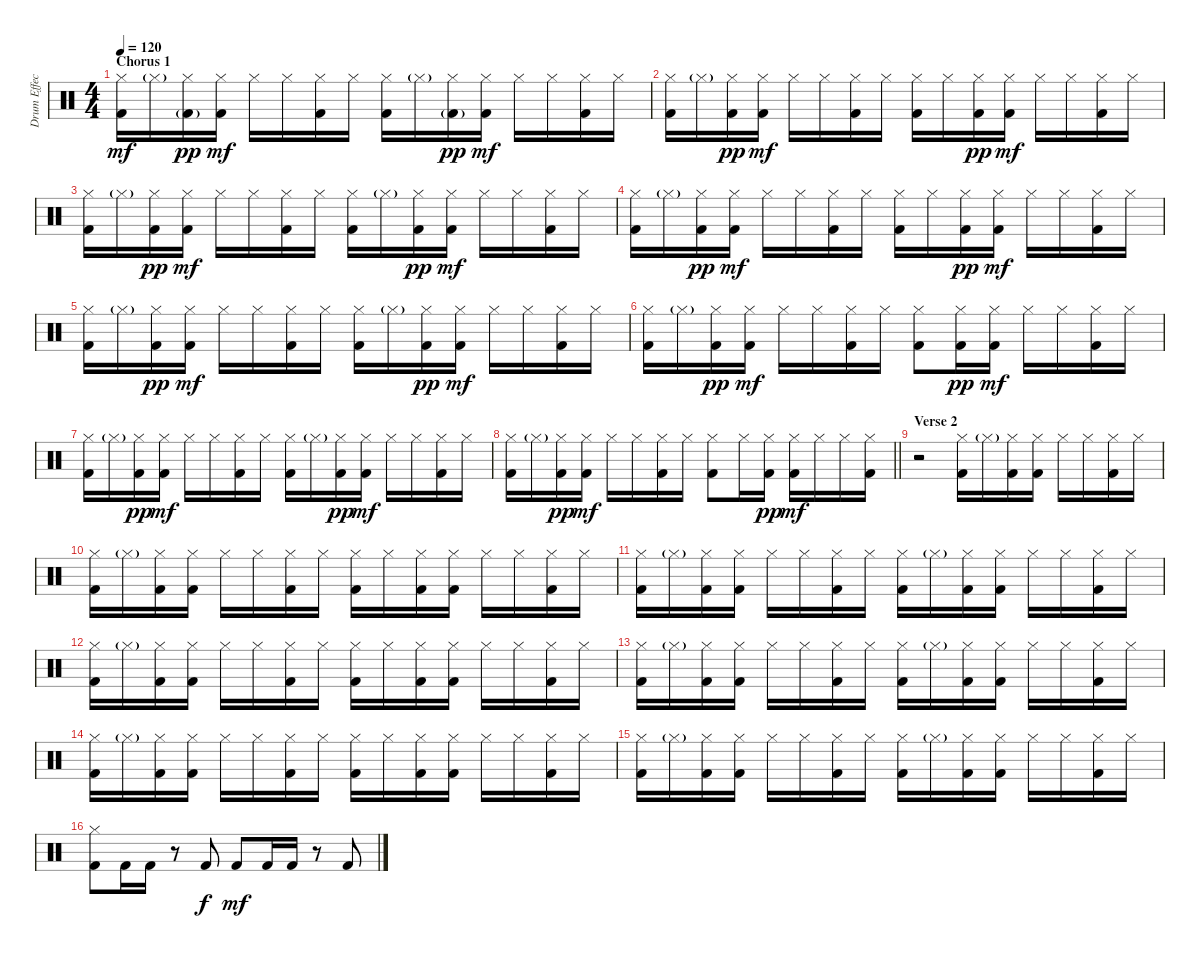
\track ("Drum Effects" "Drum Effec") {instrument percussion}
\staff {score}
\articulation defaults
\ts (4 4)
\section ("" "Chorus 1")
\tempo 120
\clef neutral
\ks c
("Hi-Hat (closed)" "Kick (hit) 2").16{dy mf} "Hi-Hat (closed)"{g}.16 ("Hi-Hat (closed)" "Kick (hit) 2"{g}).16{dy pp} ("Hi-Hat (closed)" "Kick (hit) 2").16{dy mf} "Hi-Hat (closed)".16 "Hi-Hat (closed)".16 ("Hi-Hat (closed)" "Kick (hit) 2").16 "Hi-Hat (closed)".16 ("Hi-Hat (closed)" "Kick (hit) 2").16 "Hi-Hat (closed)"{g}.16 ("Hi-Hat (closed)" "Kick (hit) 2"{g}).16{dy pp} ("Hi-Hat (closed)" "Kick (hit) 2").16{dy mf} "Hi-Hat (closed)".16 "Hi-Hat (closed)".16 ("Hi-Hat (closed)" "Kick (hit) 2").16 "Hi-Hat (closed)".16 |
("Hi-Hat (closed)" "Kick (hit) 2").16 "Hi-Hat (closed)"{g}.16 ("Hi-Hat (closed)" "Kick (hit) 2").16{dy pp} ("Hi-Hat (closed)" "Kick (hit) 2").16{dy mf} "Hi-Hat (closed)".16 "Hi-Hat (closed)".16 ("Hi-Hat (closed)" "Kick (hit) 2").16 "Hi-Hat (closed)".16 ("Hi-Hat (closed)" "Kick (hit) 2").16 "Hi-Hat (closed)".16 ("Hi-Hat (closed)" "Kick (hit) 2").16{dy pp} ("Hi-Hat (closed)" "Kick (hit) 2").16{dy mf} "Hi-Hat (closed)".16 "Hi-Hat (closed)".16 ("Hi-Hat (closed)" "Kick (hit) 2").16 "Hi-Hat (closed)".16 |
("Hi-Hat (closed)" "Kick (hit) 2").16 "Hi-Hat (closed)"{g}.16 ("Hi-Hat (closed)" "Kick (hit) 2").16{dy pp} ("Hi-Hat (closed)" "Kick (hit) 2").16{dy mf} "Hi-Hat (closed)".16 "Hi-Hat (closed)".16 ("Hi-Hat (closed)" "Kick (hit) 2").16 "Hi-Hat (closed)".16 ("Hi-Hat (closed)" "Kick (hit) 2").16 "Hi-Hat (closed)"{g}.16 ("Hi-Hat (closed)" "Kick (hit) 2").16{dy pp} ("Hi-Hat (closed)" "Kick (hit) 2").16{dy mf} "Hi-Hat (closed)".16 "Hi-Hat (closed)".16 ("Hi-Hat (closed)" "Kick (hit) 2").16 "Hi-Hat (closed)".16 |
("Hi-Hat (closed)" "Kick (hit) 2").16 "Hi-Hat (closed)"{g}.16 ("Hi-Hat (closed)" "Kick (hit) 2").16{dy pp} ("Hi-Hat (closed)" "Kick (hit) 2").16{dy mf} "Hi-Hat (closed)".16 "Hi-Hat (closed)".16 ("Hi-Hat (closed)" "Kick (hit) 2").16 "Hi-Hat (closed)".16 ("Hi-Hat (closed)" "Kick (hit) 2").16 "Hi-Hat (closed)".16 ("Hi-Hat (closed)" "Kick (hit) 2").16{dy pp} ("Hi-Hat (closed)" "Kick (hit) 2").16{dy mf} "Hi-Hat (closed)".16 "Hi-Hat (closed)".16 ("Hi-Hat (closed)" "Kick (hit) 2").16 "Hi-Hat (closed)".16 |
("Hi-Hat (closed)" "Kick (hit) 2").16 "Hi-Hat (closed)"{g}.16 ("Hi-Hat (closed)" "Kick (hit) 2").16{dy pp} ("Hi-Hat (closed)" "Kick (hit) 2").16{dy mf} "Hi-Hat (closed)".16 "Hi-Hat (closed)".16 ("Hi-Hat (closed)" "Kick (hit) 2").16 "Hi-Hat (closed)".16 ("Hi-Hat (closed)" "Kick (hit) 2").16 "Hi-Hat (closed)"{g}.16 ("Hi-Hat (closed)" "Kick (hit) 2").16{dy pp} ("Hi-Hat (closed)" "Kick (hit) 2").16{dy mf} "Hi-Hat (closed)".16 "Hi-Hat (closed)".16 ("Hi-Hat (closed)" "Kick (hit) 2").16 "Hi-Hat (closed)".16 |
("Hi-Hat (closed)" "Kick (hit) 2").16 "Hi-Hat (closed)"{g}.16 ("Hi-Hat (closed)" "Kick (hit) 2").16{dy pp} ("Hi-Hat (closed)" "Kick (hit) 2").16{dy mf} "Hi-Hat (closed)".16 "Hi-Hat (closed)".16 ("Hi-Hat (closed)" "Kick (hit) 2").16 "Hi-Hat (closed)".16 ("Hi-Hat (closed)" "Kick (hit) 2").8 ("Hi-Hat (closed)" "Kick (hit) 2").16{dy pp} ("Hi-Hat (closed)" "Kick (hit) 2").16{dy mf} "Hi-Hat (closed)".16 "Hi-Hat (closed)".16 ("Hi-Hat (closed)" "Kick (hit) 2").16 "Hi-Hat (closed)".16 |
("Hi-Hat (closed)" "Kick (hit) 2").16 "Hi-Hat (closed)"{g}.16 ("Hi-Hat (closed)" "Kick (hit) 2").16{dy pp} ("Hi-Hat (closed)" "Kick (hit) 2").16{dy mf} "Hi-Hat (closed)".16 "Hi-Hat (closed)".16 ("Hi-Hat (closed)" "Kick (hit) 2").16 "Hi-Hat (closed)".16 ("Hi-Hat (closed)" "Kick (hit) 2").16 "Hi-Hat (closed)"{g}.16 ("Hi-Hat (closed)" "Kick (hit) 2").16{dy pp} ("Hi-Hat (closed)" "Kick (hit) 2").16{dy mf} "Hi-Hat (closed)".16 "Hi-Hat (closed)".16 ("Hi-Hat (closed)" "Kick (hit) 2").16 "Hi-Hat (closed)".16 |
\barLineRight lightlight
("Hi-Hat (closed)" "Kick (hit) 2").16 "Hi-Hat (closed)"{g}.16 ("Hi-Hat (closed)" "Kick (hit) 2").16{dy pp} ("Hi-Hat (closed)" "Kick (hit) 2").16{dy mf} "Hi-Hat (closed)".16 "Hi-Hat (closed)".16 ("Hi-Hat (closed)" "Kick (hit) 2").16 "Hi-Hat (closed)".16 ("Hi-Hat (closed)" "Kick (hit) 2").8 "Hi-Hat (closed)".16 ("Hi-Hat (closed)" "Kick (hit) 2").16{dy pp} ("Hi-Hat (closed)" "Kick (hit) 2").16{dy mf} "Hi-Hat (closed)".16 "Hi-Hat (closed)".16 ("Hi-Hat (closed)" "Kick (hit) 2").16 |
\section ("" "Verse 2")
r.2 ("Hi-Hat (closed)" "Kick (hit) 2").16 "Hi-Hat (closed)"{g}.16 ("Hi-Hat (closed)" "Kick (hit) 2").16 ("Hi-Hat (closed)" "Kick (hit) 2").16 "Hi-Hat (closed)".16 "Hi-Hat (closed)".16 ("Hi-Hat (closed)" "Kick (hit) 2").16 "Hi-Hat (closed)".16 |
("Hi-Hat (closed)" "Kick (hit) 2").16 "Hi-Hat (closed)"{g}.16 ("Hi-Hat (closed)" "Kick (hit) 2").16 ("Hi-Hat (closed)" "Kick (hit) 2").16 "Hi-Hat (closed)".16 "Hi-Hat (closed)".16 ("Hi-Hat (closed)" "Kick (hit) 2").16 "Hi-Hat (closed)".16 ("Hi-Hat (closed)" "Kick (hit) 2").16 "Hi-Hat (closed)".16 ("Hi-Hat (closed)" "Kick (hit) 2").16 ("Hi-Hat (closed)" "Kick (hit) 2").16 "Hi-Hat (closed)".16 "Hi-Hat (closed)".16 ("Hi-Hat (closed)" "Kick (hit) 2").16 "Hi-Hat (closed)".16 |
("Hi-Hat (closed)" "Kick (hit) 2").16 "Hi-Hat (closed)"{g}.16 ("Hi-Hat (closed)" "Kick (hit) 2").16 ("Hi-Hat (closed)" "Kick (hit) 2").16 "Hi-Hat (closed)".16 "Hi-Hat (closed)".16 ("Hi-Hat (closed)" "Kick (hit) 2").16 "Hi-Hat (closed)".16 ("Hi-Hat (closed)" "Kick (hit) 2").16 "Hi-Hat (closed)"{g}.16 ("Hi-Hat (closed)" "Kick (hit) 2").16 ("Hi-Hat (closed)" "Kick (hit) 2").16 "Hi-Hat (closed)".16 "Hi-Hat (closed)".16 ("Hi-Hat (closed)" "Kick (hit) 2").16 "Hi-Hat (closed)".16 |
("Hi-Hat (closed)" "Kick (hit) 2").16 "Hi-Hat (closed)"{g}.16 ("Hi-Hat (closed)" "Kick (hit) 2").16 ("Hi-Hat (closed)" "Kick (hit) 2").16 "Hi-Hat (closed)".16 "Hi-Hat (closed)".16 ("Hi-Hat (closed)" "Kick (hit) 2").16 "Hi-Hat (closed)".16 ("Hi-Hat (closed)" "Kick (hit) 2").16 "Hi-Hat (closed)".16 ("Hi-Hat (closed)" "Kick (hit) 2").16 ("Hi-Hat (closed)" "Kick (hit) 2").16 "Hi-Hat (closed)".16 "Hi-Hat (closed)".16 ("Hi-Hat (closed)" "Kick (hit) 2").16 "Hi-Hat (closed)".16 |
("Hi-Hat (closed)" "Kick (hit) 2").16 "Hi-Hat (closed)"{g}.16 ("Hi-Hat (closed)" "Kick (hit) 2").16 ("Hi-Hat (closed)" "Kick (hit) 2").16 "Hi-Hat (closed)".16 "Hi-Hat (closed)".16 ("Hi-Hat (closed)" "Kick (hit) 2").16 "Hi-Hat (closed)".16 ("Hi-Hat (closed)" "Kick (hit) 2").16 "Hi-Hat (closed)"{g}.16 ("Hi-Hat (closed)" "Kick (hit) 2").16 ("Hi-Hat (closed)" "Kick (hit) 2").16 "Hi-Hat (closed)".16 "Hi-Hat (closed)".16 ("Hi-Hat (closed)" "Kick (hit) 2").16 "Hi-Hat (closed)".16 |
("Hi-Hat (closed)" "Kick (hit) 2").16 "Hi-Hat (closed)"{g}.16 ("Hi-Hat (closed)" "Kick (hit) 2").16 ("Hi-Hat (closed)" "Kick (hit) 2").16 "Hi-Hat (closed)".16 "Hi-Hat (closed)".16 ("Hi-Hat (closed)" "Kick (hit) 2").16 "Hi-Hat (closed)".16 ("Hi-Hat (closed)" "Kick (hit) 2").16 "Hi-Hat (closed)".16 ("Hi-Hat (closed)" "Kick (hit) 2").16 ("Hi-Hat (closed)" "Kick (hit) 2").16 "Hi-Hat (closed)".16 "Hi-Hat (closed)".16 ("Hi-Hat (closed)" "Kick (hit) 2").16 "Hi-Hat (closed)".16 |
("Hi-Hat (closed)" "Kick (hit) 2").16 "Hi-Hat (closed)"{g}.16 ("Hi-Hat (closed)" "Kick (hit) 2").16 ("Hi-Hat (closed)" "Kick (hit) 2").16 "Hi-Hat (closed)".16 "Hi-Hat (closed)".16 ("Hi-Hat (closed)" "Kick (hit) 2").16 "Hi-Hat (closed)".16 ("Hi-Hat (closed)" "Kick (hit) 2").16 "Hi-Hat (closed)"{g}.16 ("Hi-Hat (closed)" "Kick (hit) 2").16 ("Hi-Hat (closed)" "Kick (hit) 2").16 "Hi-Hat (closed)".16 "Hi-Hat (closed)".16 ("Hi-Hat (closed)" "Kick (hit) 2").16 "Hi-Hat (closed)".16 |
("Hi-Hat (closed)" "Kick (hit) 2").8 "Kick (hit) 2".16 "Kick (hit) 2".16 r.8 "Kick (hit) 2".8{dy f} "Kick (hit) 2".8{dy mf} "Kick (hit) 2".16 "Kick (hit) 2".16 r.8 "Kick (hit) 2".8
